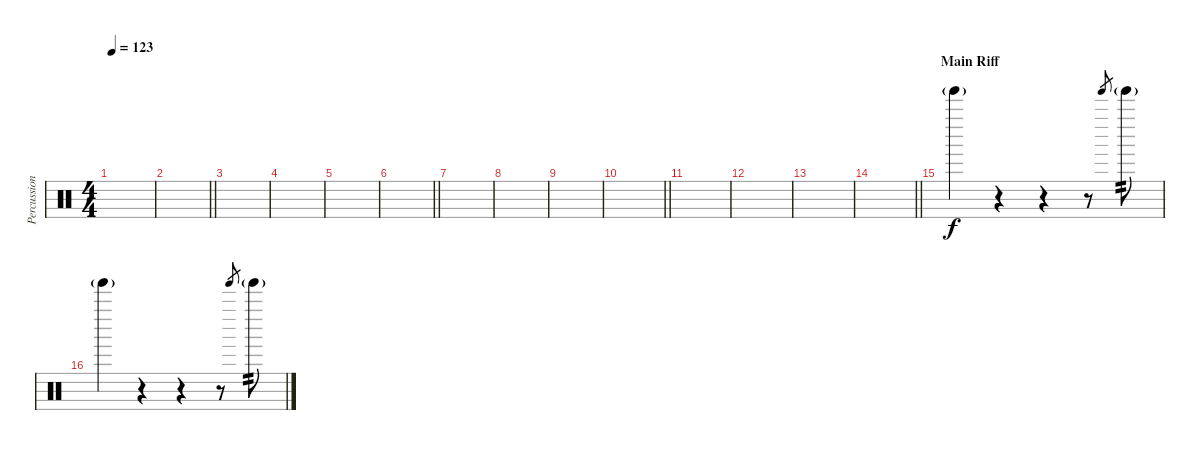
\track ("Percussions" "Percussion") {instrument percussion}
\staff {score}
\articulation defaults
\ts (4 4)
\tempo 123
\clef neutral
\ks c
|
\barLineRight lightlight
|
|
|
|
\barLineRight lightlight
|
|
|
|
\barLineRight lightlight
|
|
|
|
\barLineRight lightlight
|
\section ("" "Main Riff")
"Tinkle Bell (hit)"{g}.4 r.4 r.4 r.8 "Tinkle Bell (hit)".8{gr} "Tinkle Bell (hit)"{g}.8{tp 2} |
"Tinkle Bell (hit)"{g}.4 r.4 r.4 r.8 "Tinkle Bell (hit)".8{gr} "Tinkle Bell (hit)"{g}.8{tp 2}
